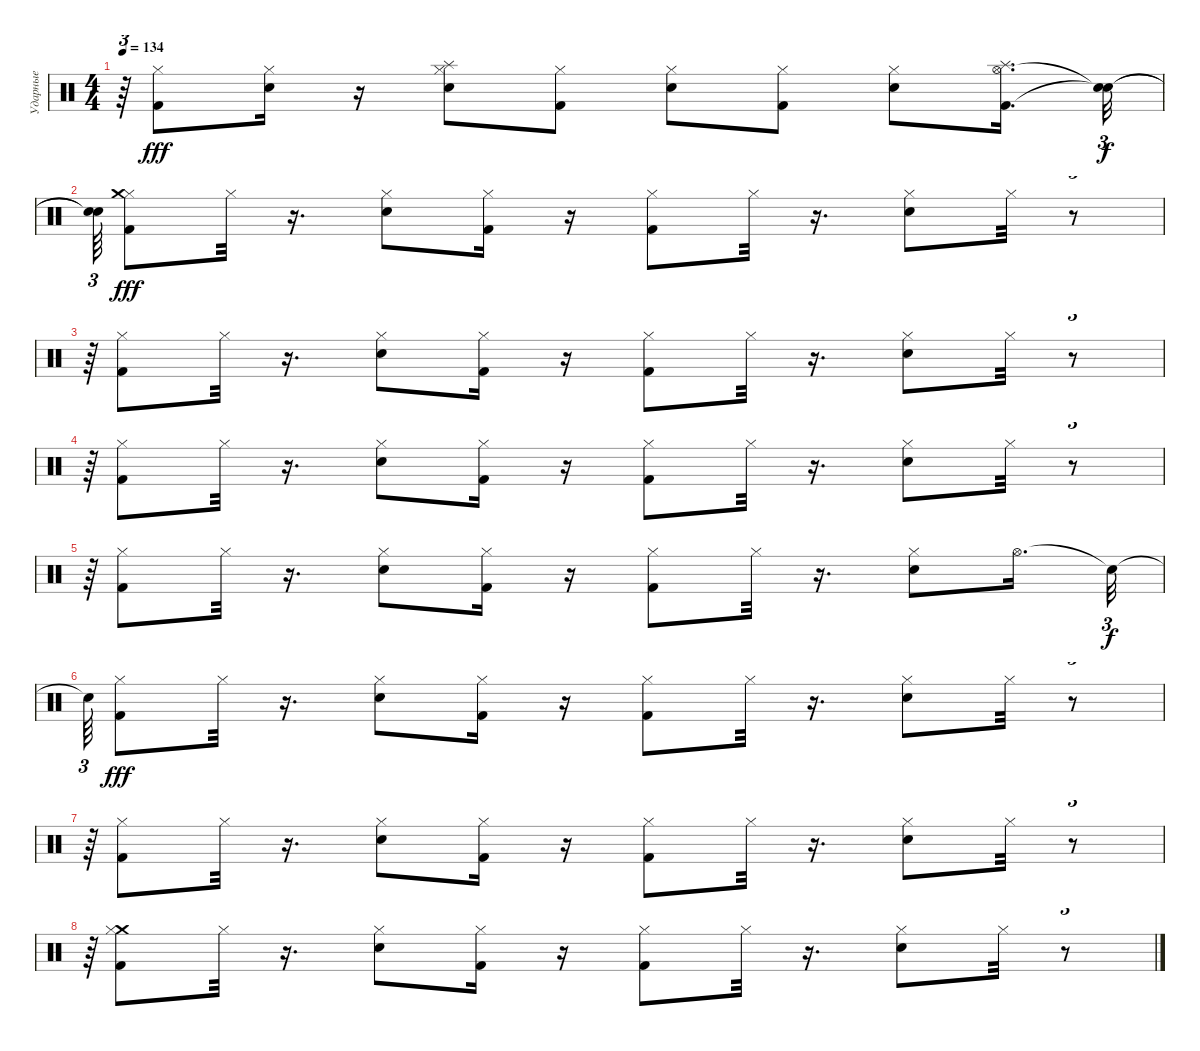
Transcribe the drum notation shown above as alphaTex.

\track ("Ударные" "Ударные") {instrument percussion}
\staff {score}
\articulation defaults
\ts (4 4)
\tempo 134
\clef neutral
\ks c
r.64{tu (3 2) dy fff} ("Kick (hit) 2" "Hi-Hat (closed)").8 ("Electric Snare (hit)" "Hi-Hat (closed)").16 r.16 ("Electric Snare (hit)" "Hi-Hat (closed)" "Splash (hit)").8 ("Kick (hit) 2" "Hi-Hat (closed)").8 ("Electric Snare (hit)" "Hi-Hat (closed)").8 ("Kick (hit) 2" "Hi-Hat (closed)").8 ("Electric Snare (hit)" "Hi-Hat (closed)").8 ("Kick (hit) 2" "Hi-Hat (open)" "Splash (hit)").16{d} ("Snare (hit)"{t} "Snare (hit)"{t}).32{tu (3 2) dy f} |
("Snare (hit)"{t} "Snare (hit)"{t}).64{tu (3 2)} ("Kick (hit) 2" "Hi-Hat (closed)" "Crash medium (hit)").8{dy fff} "Hi-Hat (closed)".32 r.16{d} ("Electric Snare (hit)" "Hi-Hat (closed)").8 ("Kick (hit) 2" "Hi-Hat (closed)").16 r.16 ("Kick (hit) 2" "Hi-Hat (closed)").8 "Hi-Hat (closed)".32 r.16{d} ("Electric Snare (hit)" "Hi-Hat (closed)").8 "Hi-Hat (closed)".32 r.8{tu (3 2)} |
r.64{tu (3 2)} ("Kick (hit) 2" "Hi-Hat (closed)").8 "Hi-Hat (closed)".32 r.16{d} ("Electric Snare (hit)" "Hi-Hat (closed)").8 ("Kick (hit) 2" "Hi-Hat (closed)").16 r.16 ("Kick (hit) 2" "Hi-Hat (closed)").8 "Hi-Hat (closed)".32 r.16{d} ("Electric Snare (hit)" "Hi-Hat (closed)").8 "Hi-Hat (closed)".32 r.8{tu (3 2)} |
r.64{tu (3 2)} ("Kick (hit) 2" "Hi-Hat (closed)").8 "Hi-Hat (closed)".32 r.16{d} ("Electric Snare (hit)" "Hi-Hat (closed)").8 ("Kick (hit) 2" "Hi-Hat (closed)").16 r.16 ("Kick (hit) 2" "Hi-Hat (closed)").8 "Hi-Hat (closed)".32 r.16{d} ("Electric Snare (hit)" "Hi-Hat (closed)").8 "Hi-Hat (closed)".32 r.8{tu (3 2)} |
r.64{tu (3 2)} ("Kick (hit) 2" "Hi-Hat (closed)").8 "Hi-Hat (closed)".32 r.16{d} ("Electric Snare (hit)" "Hi-Hat (closed)").8 ("Kick (hit) 2" "Hi-Hat (closed)").16 r.16 ("Kick (hit) 2" "Hi-Hat (closed)").8 "Hi-Hat (closed)".32 r.16{d} ("Electric Snare (hit)" "Hi-Hat (closed)").8 "Hi-Hat (open)".16{d} "Snare (hit)"{t}.32{tu (3 2) dy f} |
"Snare (hit)"{t}.64{tu (3 2)} ("Kick (hit) 2" "Hi-Hat (closed)").8{dy fff} "Hi-Hat (closed)".32 r.16{d} ("Electric Snare (hit)" "Hi-Hat (closed)").8 ("Kick (hit) 2" "Hi-Hat (closed)").16 r.16 ("Kick (hit) 2" "Hi-Hat (closed)").8 "Hi-Hat (closed)".32 r.16{d} ("Electric Snare (hit)" "Hi-Hat (closed)").8 "Hi-Hat (closed)".32 r.8{tu (3 2)} |
r.64{tu (3 2)} ("Kick (hit) 2" "Hi-Hat (closed)").8 "Hi-Hat (closed)".32 r.16{d} ("Electric Snare (hit)" "Hi-Hat (closed)").8 ("Kick (hit) 2" "Hi-Hat (closed)").16 r.16 ("Kick (hit) 2" "Hi-Hat (closed)").8 "Hi-Hat (closed)".32 r.16{d} ("Electric Snare (hit)" "Hi-Hat (closed)").8 "Hi-Hat (closed)".32 r.8{tu (3 2)} |
r.64{tu (3 2)} ("Crash medium (hit)" "Kick (hit) 2" "Hi-Hat (closed)").8 "Hi-Hat (closed)".32 r.16{d} ("Electric Snare (hit)" "Hi-Hat (closed)").8 ("Kick (hit) 2" "Hi-Hat (closed)").16 r.16 ("Kick (hit) 2" "Hi-Hat (closed)").8 "Hi-Hat (closed)".32 r.16{d} ("Electric Snare (hit)" "Hi-Hat (closed)").8 "Hi-Hat (closed)".32 r.8{tu (3 2)}
